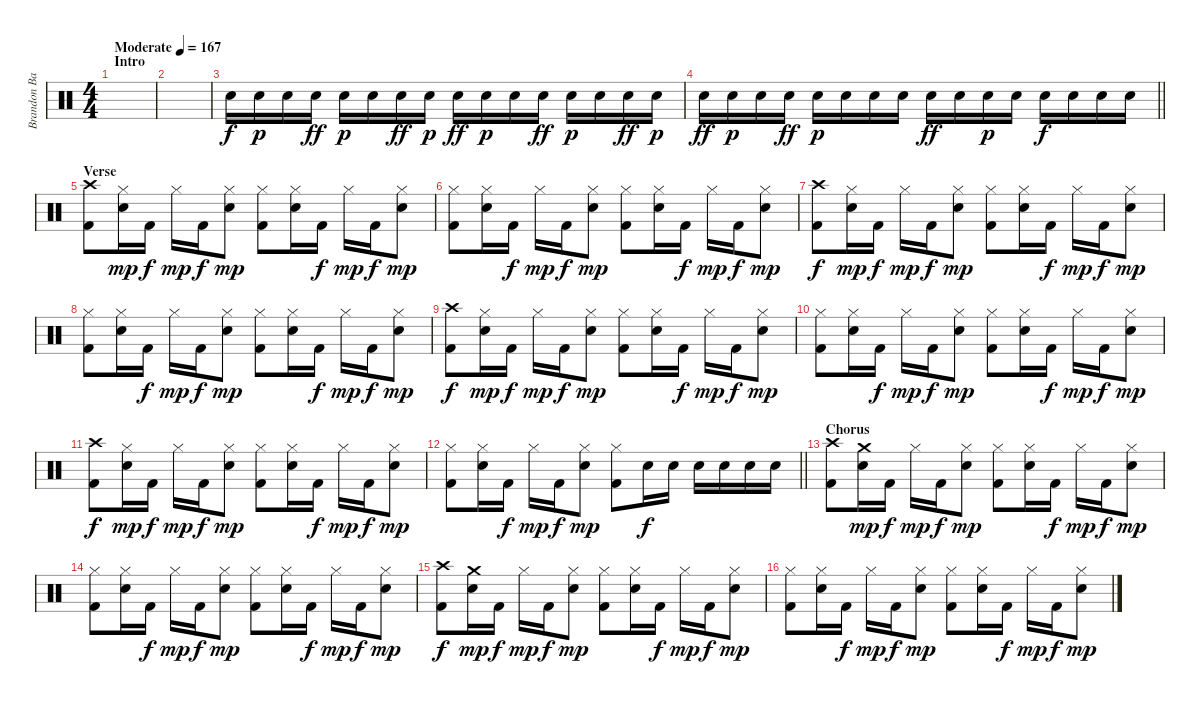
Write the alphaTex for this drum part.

\track ("Brandon Barnes" "Brandon Ba") {instrument percussion}
\staff {score}
\articulation defaults
\ts (4 4)
\section ("" "Intro")
\tempo (167 "Moderate")
\clef neutral
\ks c
|
|
"Snare (hit) 2".16 "Snare (hit) 2".16{dy p} "Snare (hit) 2".16 "Snare (hit) 2".16{dy ff} "Snare (hit) 2".16{dy p} "Snare (hit) 2".16 "Snare (hit) 2".16{dy ff} "Snare (hit) 2".16{dy p} "Snare (hit) 2".16{dy ff} "Snare (hit) 2".16{dy p} "Snare (hit) 2".16 "Snare (hit) 2".16{dy ff} "Snare (hit) 2".16{dy p} "Snare (hit) 2".16 "Snare (hit) 2".16{dy ff} "Snare (hit) 2".16{dy p} |
\barLineRight lightlight "Snare (hit) 2".16{dy ff} "Snare (hit) 2".16{dy p} "Snare (hit) 2".16 "Snare (hit) 2".16{dy ff} "Snare (hit) 2".16{dy p} "Snare (hit) 2".16 "Snare (hit) 2".16 "Snare (hit) 2".16 "Snare (hit) 2".16{dy ff} "Snare (hit) 2".16 "Snare (hit) 2".16{dy p} "Snare (hit) 2".16 "Snare (hit) 2".16{dy f} "Snare (hit) 2".16 "Snare (hit) 2".16 "Snare (hit) 2".16
|
\section ("" "Verse")
("Kick (hit) 2" "Crash high (hit)").8 ("Snare (hit) 2" "Hi-Hat (closed)").16{dy mp} "Kick (hit) 2".16{dy f} "Hi-Hat (closed)".16{dy mp} "Kick (hit) 2".16{dy f} ("Snare (hit) 2" "Hi-Hat (closed)").8{dy mp} ("Kick (hit) 2" "Hi-Hat (closed)").8 ("Snare (hit) 2" "Hi-Hat (closed)").16 "Kick (hit) 2".16{dy f} "Hi-Hat (closed)".16{dy mp} "Kick (hit) 2".16{dy f} ("Snare (hit) 2" "Hi-Hat (closed)").8{dy mp} |
("Kick (hit) 2" "Hi-Hat (closed)").8 ("Snare (hit) 2" "Hi-Hat (closed)").16 "Kick (hit) 2".16{dy f} "Hi-Hat (closed)".16{dy mp} "Kick (hit) 2".16{dy f} ("Snare (hit) 2" "Hi-Hat (closed)").8{dy mp} ("Kick (hit) 2" "Hi-Hat (closed)").8 ("Snare (hit) 2" "Hi-Hat (closed)").16 "Kick (hit) 2".16{dy f} "Hi-Hat (closed)".16{dy mp} "Kick (hit) 2".16{dy f} ("Snare (hit) 2" "Hi-Hat (closed)").8{dy mp} |
("Kick (hit) 2" "Crash high (hit)").8{dy f} ("Snare (hit) 2" "Hi-Hat (closed)").16{dy mp} "Kick (hit) 2".16{dy f} "Hi-Hat (closed)".16{dy mp} "Kick (hit) 2".16{dy f} ("Snare (hit) 2" "Hi-Hat (closed)").8{dy mp} ("Kick (hit) 2" "Hi-Hat (closed)").8 ("Snare (hit) 2" "Hi-Hat (closed)").16 "Kick (hit) 2".16{dy f} "Hi-Hat (closed)".16{dy mp} "Kick (hit) 2".16{dy f} ("Snare (hit) 2" "Hi-Hat (closed)").8{dy mp} |
("Kick (hit) 2" "Hi-Hat (closed)").8 ("Snare (hit) 2" "Hi-Hat (closed)").16 "Kick (hit) 2".16{dy f} "Hi-Hat (closed)".16{dy mp} "Kick (hit) 2".16{dy f} ("Snare (hit) 2" "Hi-Hat (closed)").8{dy mp} ("Kick (hit) 2" "Hi-Hat (closed)").8 ("Snare (hit) 2" "Hi-Hat (closed)").16 "Kick (hit) 2".16{dy f} "Hi-Hat (closed)".16{dy mp} "Kick (hit) 2".16{dy f} ("Snare (hit) 2" "Hi-Hat (closed)").8{dy mp} |
("Kick (hit) 2" "Crash high (hit)").8{dy f} ("Snare (hit) 2" "Hi-Hat (closed)").16{dy mp} "Kick (hit) 2".16{dy f} "Hi-Hat (closed)".16{dy mp} "Kick (hit) 2".16{dy f} ("Snare (hit) 2" "Hi-Hat (closed)").8{dy mp} ("Kick (hit) 2" "Hi-Hat (closed)").8 ("Snare (hit) 2" "Hi-Hat (closed)").16 "Kick (hit) 2".16{dy f} "Hi-Hat (closed)".16{dy mp} "Kick (hit) 2".16{dy f} ("Snare (hit) 2" "Hi-Hat (closed)").8{dy mp} |
("Kick (hit) 2" "Hi-Hat (closed)").8 ("Snare (hit) 2" "Hi-Hat (closed)").16 "Kick (hit) 2".16{dy f} "Hi-Hat (closed)".16{dy mp} "Kick (hit) 2".16{dy f} ("Snare (hit) 2" "Hi-Hat (closed)").8{dy mp} ("Kick (hit) 2" "Hi-Hat (closed)").8 ("Snare (hit) 2" "Hi-Hat (closed)").16 "Kick (hit) 2".16{dy f} "Hi-Hat (closed)".16{dy mp} "Kick (hit) 2".16{dy f} ("Snare (hit) 2" "Hi-Hat (closed)").8{dy mp} |
("Kick (hit) 2" "Crash high (hit)").8{dy f} ("Snare (hit) 2" "Hi-Hat (closed)").16{dy mp} "Kick (hit) 2".16{dy f} "Hi-Hat (closed)".16{dy mp} "Kick (hit) 2".16{dy f} ("Snare (hit) 2" "Hi-Hat (closed)").8{dy mp} ("Kick (hit) 2" "Hi-Hat (closed)").8 ("Snare (hit) 2" "Hi-Hat (closed)").16 "Kick (hit) 2".16{dy f} "Hi-Hat (closed)".16{dy mp} "Kick (hit) 2".16{dy f} ("Snare (hit) 2" "Hi-Hat (closed)").8{dy mp} |
\barLineRight lightlight
("Kick (hit) 2" "Hi-Hat (closed)").8 ("Snare (hit) 2" "Hi-Hat (closed)").16 "Kick (hit) 2".16{dy f} "Hi-Hat (closed)".16{dy mp} "Kick (hit) 2".16{dy f} ("Snare (hit) 2" "Hi-Hat (closed)").8{dy mp} ("Kick (hit) 2" "Hi-Hat (closed)").8 "Snare (hit) 2".16{dy f} "Snare (hit) 2".16 "Snare (hit) 2".16 "Snare (hit) 2".16 "Snare (hit) 2".16 "Snare (hit) 2".16 |
\section ("" "Chorus")
("Kick (hit) 2" "Crash high (hit)").8 ("Snare (hit) 2" "Crash medium (hit)").16{dy mp} "Kick (hit) 2".16{dy f} "Hi-Hat (closed)".16{dy mp} "Kick (hit) 2".16{dy f} ("Snare (hit) 2" "Hi-Hat (closed)").8{dy mp} ("Kick (hit) 2" "Hi-Hat (closed)").8 ("Snare (hit) 2" "Hi-Hat (closed)").16 "Kick (hit) 2".16{dy f} "Hi-Hat (closed)".16{dy mp} "Kick (hit) 2".16{dy f} ("Snare (hit) 2" "Hi-Hat (closed)").8{dy mp} |
("Kick (hit) 2" "Hi-Hat (closed)").8 ("Snare (hit) 2" "Hi-Hat (closed)").16 "Kick (hit) 2".16{dy f} "Hi-Hat (closed)".16{dy mp} "Kick (hit) 2".16{dy f} ("Snare (hit) 2" "Hi-Hat (closed)").8{dy mp} ("Kick (hit) 2" "Hi-Hat (closed)").8 ("Snare (hit) 2" "Hi-Hat (closed)").16 "Kick (hit) 2".16{dy f} "Hi-Hat (closed)".16{dy mp} "Kick (hit) 2".16{dy f} ("Snare (hit) 2" "Hi-Hat (closed)").8{dy mp} |
("Kick (hit) 2" "Crash high (hit)").8{dy f} ("Snare (hit) 2" "Crash medium (hit)").16{dy mp} "Kick (hit) 2".16{dy f} "Hi-Hat (closed)".16{dy mp} "Kick (hit) 2".16{dy f} ("Snare (hit) 2" "Hi-Hat (closed)").8{dy mp} ("Kick (hit) 2" "Hi-Hat (closed)").8 ("Snare (hit) 2" "Hi-Hat (closed)").16 "Kick (hit) 2".16{dy f} "Hi-Hat (closed)".16{dy mp} "Kick (hit) 2".16{dy f} ("Snare (hit) 2" "Hi-Hat (closed)").8{dy mp} |
("Kick (hit) 2" "Hi-Hat (closed)").8 ("Snare (hit) 2" "Hi-Hat (closed)").16 "Kick (hit) 2".16{dy f} "Hi-Hat (closed)".16{dy mp} "Kick (hit) 2".16{dy f} ("Snare (hit) 2" "Hi-Hat (closed)").8{dy mp} ("Kick (hit) 2" "Hi-Hat (closed)").8 ("Snare (hit) 2" "Hi-Hat (closed)").16 "Kick (hit) 2".16{dy f} "Hi-Hat (closed)".16{dy mp} "Kick (hit) 2".16{dy f} ("Snare (hit) 2" "Hi-Hat (closed)").8{dy mp}
